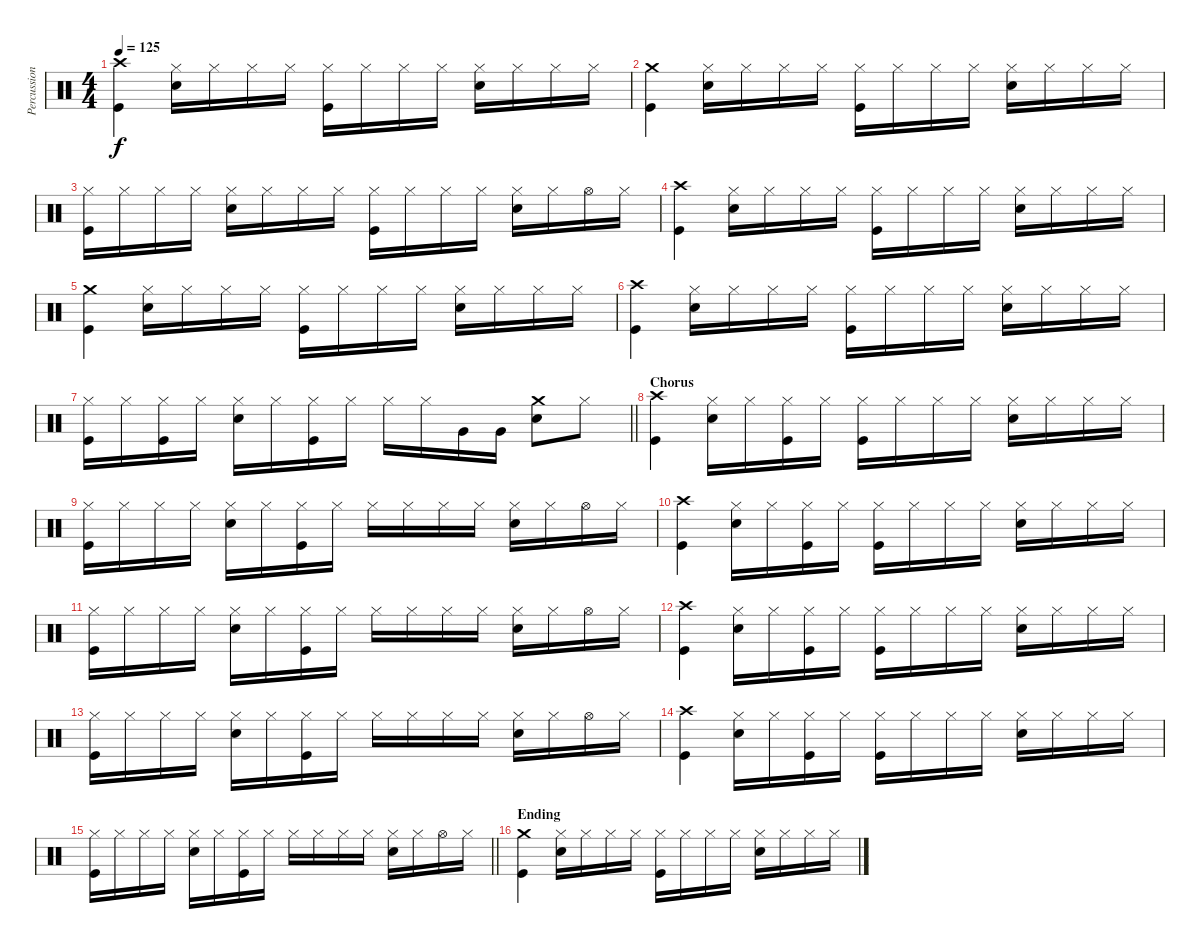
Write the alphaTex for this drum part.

\track ("Percussion" "Percussion") {instrument percussion}
\staff {score}
\articulation defaults
\ts (4 4)
\tempo 125
\clef neutral
\ks c
("Kick (hit)" "Crash high (hit)").4{dy f} ("Hi-Hat (closed)" "Snare (hit) 2").16 "Hi-Hat (closed)".16 "Hi-Hat (closed)".16 "Hi-Hat (closed)".16 ("Kick (hit)" "Hi-Hat (closed)").16 "Hi-Hat (closed)".16 "Hi-Hat (closed)".16 "Hi-Hat (closed)".16 ("Hi-Hat (closed)" "Snare (hit) 2").16 "Hi-Hat (closed)".16 "Hi-Hat (closed)".16 "Hi-Hat (closed)".16 |
("Kick (hit)" "Crash medium (hit)").4 ("Hi-Hat (closed)" "Snare (hit) 2").16 "Hi-Hat (closed)".16 "Hi-Hat (closed)".16 "Hi-Hat (closed)".16 ("Kick (hit)" "Hi-Hat (closed)").16 "Hi-Hat (closed)".16 "Hi-Hat (closed)".16 "Hi-Hat (closed)".16 ("Hi-Hat (closed)" "Snare (hit) 2").16 "Hi-Hat (closed)".16 "Hi-Hat (closed)".16 "Hi-Hat (closed)".16 |
("Kick (hit)" "Hi-Hat (closed)").16 "Hi-Hat (closed)".16 "Hi-Hat (closed)".16 "Hi-Hat (closed)".16 ("Hi-Hat (closed)" "Snare (hit) 2").16 "Hi-Hat (closed)".16 "Hi-Hat (closed)".16 "Hi-Hat (closed)".16 ("Kick (hit)" "Hi-Hat (closed)").16 "Hi-Hat (closed)".16 "Hi-Hat (closed)".16 "Hi-Hat (closed)".16 ("Hi-Hat (closed)" "Snare (hit) 2").16 "Hi-Hat (closed)".16 "Hi-Hat (open)".16 "Hi-Hat (closed)".16 |
("Kick (hit)" "Crash high (hit)").4 ("Hi-Hat (closed)" "Snare (hit) 2").16 "Hi-Hat (closed)".16 "Hi-Hat (closed)".16 "Hi-Hat (closed)".16 ("Kick (hit)" "Hi-Hat (closed)").16 "Hi-Hat (closed)".16 "Hi-Hat (closed)".16 "Hi-Hat (closed)".16 ("Hi-Hat (closed)" "Snare (hit) 2").16 "Hi-Hat (closed)".16 "Hi-Hat (closed)".16 "Hi-Hat (closed)".16 |
("Kick (hit)" "Crash medium (hit)").4 ("Hi-Hat (closed)" "Snare (hit) 2").16 "Hi-Hat (closed)".16 "Hi-Hat (closed)".16 "Hi-Hat (closed)".16 ("Kick (hit)" "Hi-Hat (closed)").16 "Hi-Hat (closed)".16 "Hi-Hat (closed)".16 "Hi-Hat (closed)".16 ("Hi-Hat (closed)" "Snare (hit) 2").16 "Hi-Hat (closed)".16 "Hi-Hat (closed)".16 "Hi-Hat (closed)".16 |
("Kick (hit)" "Crash high (hit)").4 ("Hi-Hat (closed)" "Snare (hit) 2").16 "Hi-Hat (closed)".16 "Hi-Hat (closed)".16 "Hi-Hat (closed)".16 ("Kick (hit)" "Hi-Hat (closed)").16 "Hi-Hat (closed)".16 "Hi-Hat (closed)".16 "Hi-Hat (closed)".16 ("Hi-Hat (closed)" "Snare (hit) 2").16 "Hi-Hat (closed)".16 "Hi-Hat (closed)".16 "Hi-Hat (closed)".16 |
\barLineRight lightlight
("Kick (hit)" "Hi-Hat (closed)").16 "Hi-Hat (closed)".16 ("Kick (hit)" "Hi-Hat (closed)").16 "Hi-Hat (closed)".16 ("Hi-Hat (closed)" "Snare (hit) 2").16 "Hi-Hat (closed)".16 ("Kick (hit)" "Hi-Hat (closed)").16 "Hi-Hat (closed)".16 "Hi-Hat (closed)".16 "Hi-Hat (closed)".16 "Very Low Tom (hit)".16 "Very Low Tom (hit)".16 ("Crash medium (hit)" "Snare (hit) 2").8 "Hi-Hat (closed)".8 |
\section ("" "Chorus")
("Kick (hit)" "Crash high (hit)").4 ("Hi-Hat (closed)" "Snare (hit) 2").16 "Hi-Hat (closed)".16 ("Kick (hit)" "Hi-Hat (closed)").16 "Hi-Hat (closed)".16 ("Kick (hit)" "Hi-Hat (closed)").16 "Hi-Hat (closed)".16 "Hi-Hat (closed)".16 "Hi-Hat (closed)".16 ("Hi-Hat (closed)" "Snare (hit) 2").16 "Hi-Hat (closed)".16 "Hi-Hat (closed)".16 "Hi-Hat (closed)".16 |
("Kick (hit)" "Hi-Hat (closed)").16 "Hi-Hat (closed)".16 "Hi-Hat (closed)".16 "Hi-Hat (closed)".16 ("Hi-Hat (closed)" "Snare (hit) 2").16 "Hi-Hat (closed)".16 ("Kick (hit)" "Hi-Hat (closed)").16 "Hi-Hat (closed)".16 "Hi-Hat (closed)".16 "Hi-Hat (closed)".16 "Hi-Hat (closed)".16 "Hi-Hat (closed)".16 ("Hi-Hat (closed)" "Snare (hit) 2").16 "Hi-Hat (closed)".16 "Hi-Hat (open)".16 "Hi-Hat (closed)".16 |
("Kick (hit)" "Crash high (hit)").4 ("Hi-Hat (closed)" "Snare (hit) 2").16 "Hi-Hat (closed)".16 ("Kick (hit)" "Hi-Hat (closed)").16 "Hi-Hat (closed)".16 ("Kick (hit)" "Hi-Hat (closed)").16 "Hi-Hat (closed)".16 "Hi-Hat (closed)".16 "Hi-Hat (closed)".16 ("Hi-Hat (closed)" "Snare (hit) 2").16 "Hi-Hat (closed)".16 "Hi-Hat (closed)".16 "Hi-Hat (closed)".16 |
("Kick (hit)" "Hi-Hat (closed)").16 "Hi-Hat (closed)".16 "Hi-Hat (closed)".16 "Hi-Hat (closed)".16 ("Hi-Hat (closed)" "Snare (hit) 2").16 "Hi-Hat (closed)".16 ("Kick (hit)" "Hi-Hat (closed)").16 "Hi-Hat (closed)".16 "Hi-Hat (closed)".16 "Hi-Hat (closed)".16 "Hi-Hat (closed)".16 "Hi-Hat (closed)".16 ("Hi-Hat (closed)" "Snare (hit) 2").16 "Hi-Hat (closed)".16 "Hi-Hat (open)".16 "Hi-Hat (closed)".16 |
("Kick (hit)" "Crash high (hit)").4 ("Hi-Hat (closed)" "Snare (hit) 2").16 "Hi-Hat (closed)".16 ("Kick (hit)" "Hi-Hat (closed)").16 "Hi-Hat (closed)".16 ("Kick (hit)" "Hi-Hat (closed)").16 "Hi-Hat (closed)".16 "Hi-Hat (closed)".16 "Hi-Hat (closed)".16 ("Hi-Hat (closed)" "Snare (hit) 2").16 "Hi-Hat (closed)".16 "Hi-Hat (closed)".16 "Hi-Hat (closed)".16 |
("Kick (hit)" "Hi-Hat (closed)").16 "Hi-Hat (closed)".16 "Hi-Hat (closed)".16 "Hi-Hat (closed)".16 ("Hi-Hat (closed)" "Snare (hit) 2").16 "Hi-Hat (closed)".16 ("Kick (hit)" "Hi-Hat (closed)").16 "Hi-Hat (closed)".16 "Hi-Hat (closed)".16 "Hi-Hat (closed)".16 "Hi-Hat (closed)".16 "Hi-Hat (closed)".16 ("Hi-Hat (closed)" "Snare (hit) 2").16 "Hi-Hat (closed)".16 "Hi-Hat (open)".16 "Hi-Hat (closed)".16 |
("Kick (hit)" "Crash high (hit)").4 ("Hi-Hat (closed)" "Snare (hit) 2").16 "Hi-Hat (closed)".16 ("Kick (hit)" "Hi-Hat (closed)").16 "Hi-Hat (closed)".16 ("Kick (hit)" "Hi-Hat (closed)").16 "Hi-Hat (closed)".16 "Hi-Hat (closed)".16 "Hi-Hat (closed)".16 ("Hi-Hat (closed)" "Snare (hit) 2").16 "Hi-Hat (closed)".16 "Hi-Hat (closed)".16 "Hi-Hat (closed)".16 |
\barLineRight lightlight
("Kick (hit)" "Hi-Hat (closed)").16 "Hi-Hat (closed)".16 "Hi-Hat (closed)".16 "Hi-Hat (closed)".16 ("Hi-Hat (closed)" "Snare (hit) 2").16 "Hi-Hat (closed)".16 ("Kick (hit)" "Hi-Hat (closed)").16 "Hi-Hat (closed)".16 "Hi-Hat (closed)".16 "Hi-Hat (closed)".16 "Hi-Hat (closed)".16 "Hi-Hat (closed)".16 ("Hi-Hat (closed)" "Snare (hit) 2").16 "Hi-Hat (closed)".16 "Hi-Hat (open)".16 "Hi-Hat (closed)".16 |
\section ("" "Ending")
("Kick (hit)" "Crash medium (hit)").4 ("Hi-Hat (closed)" "Snare (hit) 2").16 "Hi-Hat (closed)".16 "Hi-Hat (closed)".16 "Hi-Hat (closed)".16 ("Kick (hit)" "Hi-Hat (closed)").16 "Hi-Hat (closed)".16 "Hi-Hat (closed)".16 "Hi-Hat (closed)".16 ("Hi-Hat (closed)" "Snare (hit) 2").16 "Hi-Hat (closed)".16 "Hi-Hat (closed)".16 "Hi-Hat (closed)".16
